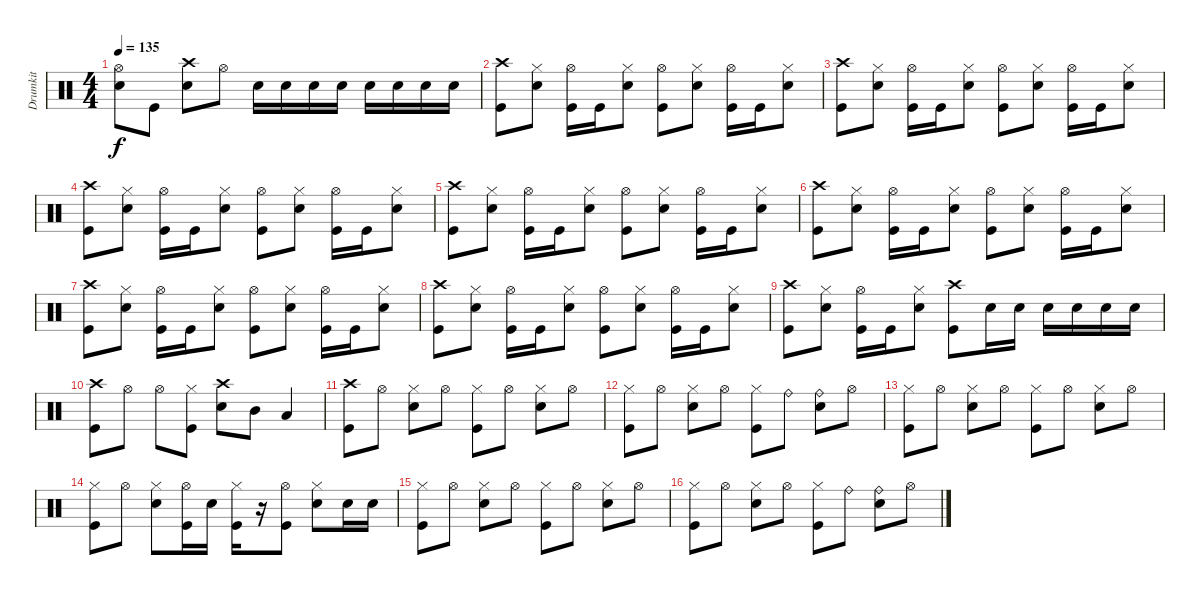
\track ("Drumkit" "Drumkit") {instrument percussion}
\staff {score}
\articulation defaults
\ts (4 4)
\tempo 135
\clef neutral
\ks c
("Hi-Hat (open)" "Snare (hit) 2").8{dy f} "Kick (hit)".8 ("Crash high (hit)" "Snare (hit) 2").8 "Hi-Hat (open)".8 "Snare (hit) 2".16 "Snare (hit) 2".16 "Snare (hit) 2".16 "Snare (hit) 2".16 "Snare (hit) 2".16 "Snare (hit) 2".16 "Snare (hit) 2".16 "Snare (hit) 2".16 |
("Crash high (hit)" "Kick (hit)").8 ("Hi-Hat (closed)" "Snare (hit) 2").8 ("Hi-Hat (open)" "Kick (hit)").16 "Kick (hit)".16 ("Snare (hit) 2" "Hi-Hat (closed)").8 ("Hi-Hat (open)" "Kick (hit)").8 ("Snare (hit) 2" "Hi-Hat (closed)").8 ("Hi-Hat (open)" "Kick (hit)").16 "Kick (hit)".16 ("Hi-Hat (closed)" "Snare (hit) 2").8 |
("Crash high (hit)" "Kick (hit)").8 ("Hi-Hat (closed)" "Snare (hit) 2").8 ("Hi-Hat (open)" "Kick (hit)").16 "Kick (hit)".16 ("Snare (hit) 2" "Hi-Hat (closed)").8 ("Hi-Hat (open)" "Kick (hit)").8 ("Snare (hit) 2" "Hi-Hat (closed)").8 ("Hi-Hat (open)" "Kick (hit)").16 "Kick (hit)".16 ("Hi-Hat (closed)" "Snare (hit) 2").8 |
("Crash high (hit)" "Kick (hit)").8 ("Hi-Hat (closed)" "Snare (hit) 2").8 ("Hi-Hat (open)" "Kick (hit)").16 "Kick (hit)".16 ("Snare (hit) 2" "Hi-Hat (closed)").8 ("Hi-Hat (open)" "Kick (hit)").8 ("Snare (hit) 2" "Hi-Hat (closed)").8 ("Hi-Hat (open)" "Kick (hit)").16 "Kick (hit)".16 ("Hi-Hat (closed)" "Snare (hit) 2").8 |
("Crash high (hit)" "Kick (hit)").8 ("Hi-Hat (closed)" "Snare (hit) 2").8 ("Hi-Hat (open)" "Kick (hit)").16 "Kick (hit)".16 ("Snare (hit) 2" "Hi-Hat (closed)").8 ("Hi-Hat (open)" "Kick (hit)").8 ("Snare (hit) 2" "Hi-Hat (closed)").8 ("Hi-Hat (open)" "Kick (hit)").16 "Kick (hit)".16 ("Hi-Hat (closed)" "Snare (hit) 2").8 |
("Crash high (hit)" "Kick (hit)").8 ("Hi-Hat (closed)" "Snare (hit) 2").8 ("Hi-Hat (open)" "Kick (hit)").16 "Kick (hit)".16 ("Snare (hit) 2" "Hi-Hat (closed)").8 ("Hi-Hat (open)" "Kick (hit)").8 ("Snare (hit) 2" "Hi-Hat (closed)").8 ("Hi-Hat (open)" "Kick (hit)").16 "Kick (hit)".16 ("Hi-Hat (closed)" "Snare (hit) 2").8 |
("Crash high (hit)" "Kick (hit)").8 ("Hi-Hat (closed)" "Snare (hit) 2").8 ("Hi-Hat (open)" "Kick (hit)").16 "Kick (hit)".16 ("Snare (hit) 2" "Hi-Hat (closed)").8 ("Hi-Hat (open)" "Kick (hit)").8 ("Snare (hit) 2" "Hi-Hat (closed)").8 ("Hi-Hat (open)" "Kick (hit)").16 "Kick (hit)".16 ("Hi-Hat (closed)" "Snare (hit) 2").8 |
("Crash high (hit)" "Kick (hit)").8 ("Hi-Hat (closed)" "Snare (hit) 2").8 ("Hi-Hat (open)" "Kick (hit)").16 "Kick (hit)".16 ("Snare (hit) 2" "Hi-Hat (closed)").8 ("Hi-Hat (open)" "Kick (hit)").8 ("Snare (hit) 2" "Hi-Hat (closed)").8 ("Hi-Hat (open)" "Kick (hit)").16 "Kick (hit)".16 ("Hi-Hat (closed)" "Snare (hit) 2").8 |
("Crash high (hit)" "Kick (hit)").8 ("Hi-Hat (closed)" "Snare (hit) 2").8 ("Hi-Hat (open)" "Kick (hit)").16 "Kick (hit)".16 ("Hi-Hat (closed)" "Snare (hit) 2").8 ("Kick (hit)" "Crash high (hit)").8 "Snare (hit) 2".16 "Snare (hit) 2".16 "Snare (hit) 2".16 "Snare (hit) 2".16 "Snare (hit) 2".16 "Snare (hit) 2".16 |
("Crash high (hit)" "Kick (hit)").8 "Hi-Hat (open)".8 "Hi-Hat (open)".8 ("Hi-Hat (closed)" "Kick (hit)").8 ("Crash high (hit)" "Snare (hit) 2").8 "Mid Tom (hit)".8 "Low Tom (hit)".4 |
("Crash high (hit)" "Kick (hit)").8 "Hi-Hat (open)".8 ("Hi-Hat (closed)" "Snare (hit) 2").8 "Hi-Hat (open)".8 ("Kick (hit)" "Hi-Hat (closed)").8 "Hi-Hat (open)".8 ("Snare (hit) 2" "Hi-Hat (closed)").8 "Hi-Hat (open)".8 |
("Hi-Hat (closed)" "Kick (hit)").8 "Hi-Hat (open)".8 ("Snare (hit) 2" "Hi-Hat (closed)").8 "Hi-Hat (open)".8 ("Kick (hit)" "Hi-Hat (closed)").8 "Ride (bell)".8 ("Ride (bell)" "Snare (hit) 2").8 "Hi-Hat (open)".8 |
("Hi-Hat (closed)" "Kick (hit)").8 "Hi-Hat (open)".8 ("Snare (hit) 2" "Hi-Hat (closed)").8 "Hi-Hat (open)".8 ("Kick (hit)" "Hi-Hat (closed)").8 "Hi-Hat (open)".8 ("Snare (hit) 2" "Hi-Hat (closed)").8 "Hi-Hat (open)".8 |
("Hi-Hat (closed)" "Kick (hit)").8 "Hi-Hat (open)".8 ("Snare (hit) 2" "Hi-Hat (closed)").8 ("Kick (hit)" "Hi-Hat (open)").16 "Snare (hit) 2".16 ("Kick (hit)" "Hi-Hat (closed)").16 r.16 ("Kick (hit)" "Hi-Hat (open)").8 ("Snare (hit) 2" "Hi-Hat (closed)").8 "Snare (hit) 2".16 "Snare (hit) 2".16 |
("Hi-Hat (closed)" "Kick (hit)").8 "Hi-Hat (open)".8 ("Snare (hit) 2" "Hi-Hat (closed)").8 "Hi-Hat (open)".8 ("Kick (hit)" "Hi-Hat (closed)").8 "Hi-Hat (open)".8 ("Snare (hit) 2" "Hi-Hat (closed)").8 "Hi-Hat (open)".8 |
("Hi-Hat (closed)" "Kick (hit)").8 "Hi-Hat (open)".8 ("Snare (hit) 2" "Hi-Hat (closed)").8 "Hi-Hat (open)".8 ("Kick (hit)" "Hi-Hat (closed)").8 "Ride (bell)".8 ("Ride (bell)" "Snare (hit) 2").8 "Hi-Hat (open)".8
